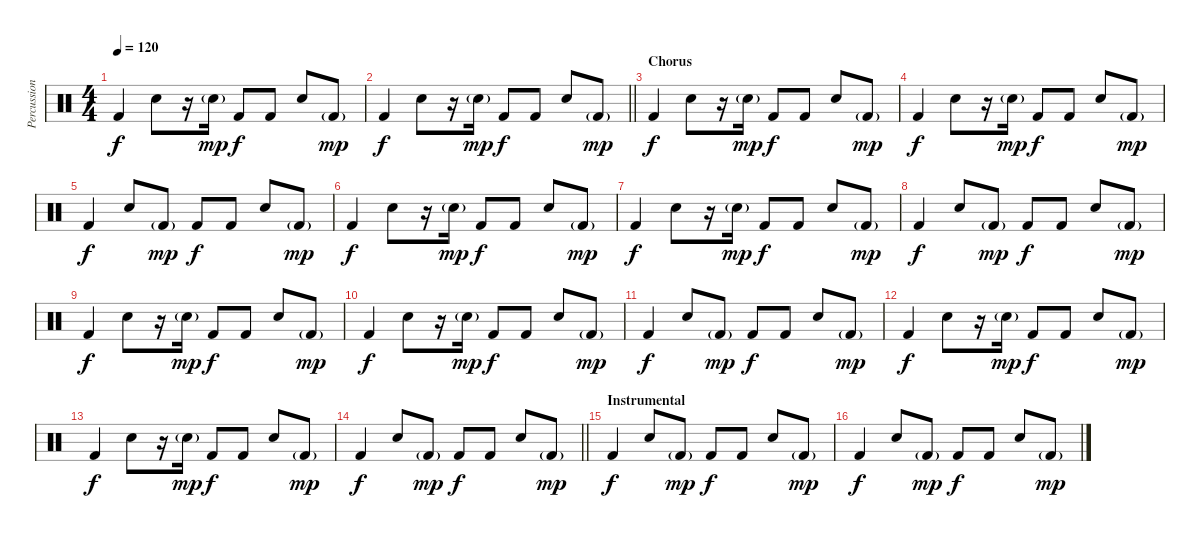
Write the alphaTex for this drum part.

\track ("Percussion" "Percussion") {instrument percussion}
\staff {score}
\articulation defaults
\ts (4 4)
\tempo 120
\clef neutral
\ks c "Kick (hit) 2".4{dy f} "Snare (hit) 2".8
r.16 "Snare (hit) 2"{g}.16{dy mp} "Kick (hit) 2".8{dy f} "Kick (hit) 2".8 "Snare (hit) 2".8 "Kick (hit) 2"{g}.8{dy mp} |
\barLineRight lightlight "Kick (hit) 2".4{dy f} "Snare (hit) 2".8
r.16 "Snare (hit) 2"{g}.16{dy mp} "Kick (hit) 2".8{dy f} "Kick (hit) 2".8 "Snare (hit) 2".8 "Kick (hit) 2"{g}.8{dy mp} |
\section ("" "Chorus")
"Kick (hit) 2".4{dy f} "Snare (hit) 2".8 r.16 "Snare (hit) 2"{g}.16{dy mp} "Kick (hit) 2".8{dy f} "Kick (hit) 2".8 "Snare (hit) 2".8 "Kick (hit) 2"{g}.8{dy mp} |
"Kick (hit) 2".4{dy f} "Snare (hit) 2".8 r.16 "Snare (hit) 2"{g}.16{dy mp} "Kick (hit) 2".8{dy f} "Kick (hit) 2".8 "Snare (hit) 2".8 "Kick (hit) 2"{g}.8{dy mp} |
"Kick (hit) 2".4{dy f} "Snare (hit) 2".8 "Kick (hit) 2"{g}.8{dy mp} "Kick (hit) 2".8{dy f} "Kick (hit) 2".8 "Snare (hit) 2".8 "Kick (hit) 2"{g}.8{dy mp} |
"Kick (hit) 2".4{dy f} "Snare (hit) 2".8 r.16 "Snare (hit) 2"{g}.16{dy mp} "Kick (hit) 2".8{dy f} "Kick (hit) 2".8 "Snare (hit) 2".8 "Kick (hit) 2"{g}.8{dy mp} |
"Kick (hit) 2".4{dy f} "Snare (hit) 2".8 r.16 "Snare (hit) 2"{g}.16{dy mp} "Kick (hit) 2".8{dy f} "Kick (hit) 2".8 "Snare (hit) 2".8 "Kick (hit) 2"{g}.8{dy mp} |
"Kick (hit) 2".4{dy f} "Snare (hit) 2".8 "Kick (hit) 2"{g}.8{dy mp} "Kick (hit) 2".8{dy f} "Kick (hit) 2".8 "Snare (hit) 2".8 "Kick (hit) 2"{g}.8{dy mp} |
"Kick (hit) 2".4{dy f} "Snare (hit) 2".8 r.16 "Snare (hit) 2"{g}.16{dy mp} "Kick (hit) 2".8{dy f} "Kick (hit) 2".8 "Snare (hit) 2".8 "Kick (hit) 2"{g}.8{dy mp} |
"Kick (hit) 2".4{dy f} "Snare (hit) 2".8 r.16 "Snare (hit) 2"{g}.16{dy mp} "Kick (hit) 2".8{dy f} "Kick (hit) 2".8 "Snare (hit) 2".8 "Kick (hit) 2"{g}.8{dy mp} |
"Kick (hit) 2".4{dy f} "Snare (hit) 2".8 "Kick (hit) 2"{g}.8{dy mp} "Kick (hit) 2".8{dy f} "Kick (hit) 2".8 "Snare (hit) 2".8 "Kick (hit) 2"{g}.8{dy mp} |
"Kick (hit) 2".4{dy f} "Snare (hit) 2".8 r.16 "Snare (hit) 2"{g}.16{dy mp} "Kick (hit) 2".8{dy f} "Kick (hit) 2".8 "Snare (hit) 2".8 "Kick (hit) 2"{g}.8{dy mp} |
"Kick (hit) 2".4{dy f} "Snare (hit) 2".8 r.16 "Snare (hit) 2"{g}.16{dy mp} "Kick (hit) 2".8{dy f} "Kick (hit) 2".8 "Snare (hit) 2".8 "Kick (hit) 2"{g}.8{dy mp} |
\barLineRight lightlight "Kick (hit) 2".4{dy f} "Snare (hit) 2".8 "Kick (hit) 2"{g}.8{dy mp} "Kick (hit) 2".8{dy f} "Kick (hit) 2".8 "Snare (hit) 2".8 "Kick (hit) 2"{g}.8{dy mp}
|
\section ("" "Instrumental")
"Kick (hit) 2".4{dy f} "Snare (hit) 2".8 "Kick (hit) 2"{g}.8{dy mp} "Kick (hit) 2".8{dy f} "Kick (hit) 2".8 "Snare (hit) 2".8 "Kick (hit) 2"{g}.8{dy mp} |
"Kick (hit) 2".4{dy f} "Snare (hit) 2".8 "Kick (hit) 2"{g}.8{dy mp} "Kick (hit) 2".8{dy f} "Kick (hit) 2".8 "Snare (hit) 2".8 "Kick (hit) 2"{g}.8{dy mp}
